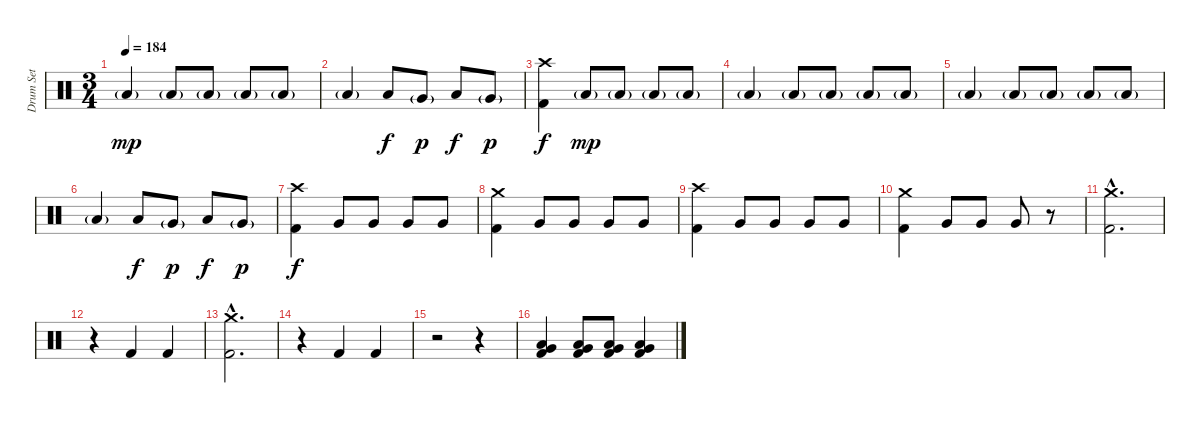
\track ("Drum Set" "Drum Set") {instrument percussion}
\staff {score}
\articulation defaults
\ts (3 4)
\tempo 184
\clef neutral
\ks c "Low Floor Tom (hit)"{g}.4{dy mp} "Low Floor Tom (hit)"{g}.8 "Low Floor Tom (hit)"{g}.8 "Low Floor Tom (hit)"{g}.8 "Low Floor Tom (hit)"{g}.8
|
"Low Floor Tom (hit)"{g}.4 "Low Tom (hit)".8{dy f} "Very Low Tom (hit)"{g}.8{dy p} "Low Floor Tom (hit)".8{dy f} "Very Low Tom (hit)"{g}.8{dy p} |
("Crash high (hit)" "Kick (hit) 2").4{dy f} "Low Floor Tom (hit)"{g}.8{dy mp} "Low Floor Tom (hit)"{g}.8 "Low Floor Tom (hit)"{g}.8 "Low Floor Tom (hit)"{g}.8 |
"Low Floor Tom (hit)"{g}.4 "Low Floor Tom (hit)"{g}.8 "Low Floor Tom (hit)"{g}.8 "Low Floor Tom (hit)"{g}.8 "Low Floor Tom (hit)"{g}.8 |
"Low Floor Tom (hit)"{g}.4 "Low Floor Tom (hit)"{g}.8 "Low Floor Tom (hit)"{g}.8 "Low Floor Tom (hit)"{g}.8 "Low Floor Tom (hit)"{g}.8 |
"Low Floor Tom (hit)"{g}.4 "Low Tom (hit)".8{dy f} "Very Low Tom (hit)"{g}.8{dy p} "Low Floor Tom (hit)".8{dy f} "Very Low Tom (hit)"{g}.8{dy p} |
("Crash high (hit)" "Kick (hit) 2").4{dy f} "Very Low Tom (hit)".8 "Very Low Tom (hit)".8 "Very Low Tom (hit)".8 "Very Low Tom (hit)".8 |
("Crash medium (hit)" "Kick (hit) 2").4 "Very Low Tom (hit)".8 "Very Low Tom (hit)".8 "Very Low Tom (hit)".8 "Very Low Tom (hit)".8 |
("Crash high (hit)" "Kick (hit) 2").4 "Very Low Tom (hit)".8 "Very Low Tom (hit)".8 "Very Low Tom (hit)".8 "Very Low Tom (hit)".8 |
("Crash medium (hit)" "Kick (hit) 2").4 "Very Low Tom (hit)".8 "Very Low Tom (hit)".8 "Very Low Tom (hit)".8 r.8 |
("Crash medium (hit)"{hac} "Kick (hit) 2"{hac}).2{d} |
r.4 "Kick (hit) 2".4 "Kick (hit) 2".4 |
("Crash medium (hit)"{hac} "Kick (hit) 2"{hac}).2{d} |
r.4 "Kick (hit) 2".4 "Kick (hit) 2".4 |
r.2 r.4 |
("Very Low Tom (hit)" "Low Floor Tom (hit)" "Kick (hit) 2").4 ("Very Low Tom (hit)" "Low Floor Tom (hit)" "Kick (hit) 2").8 ("Very Low Tom (hit)" "Low Floor Tom (hit)" "Kick (hit) 2").8 ("Very Low Tom (hit)" "Low Floor Tom (hit)" "Kick (hit) 2").4
